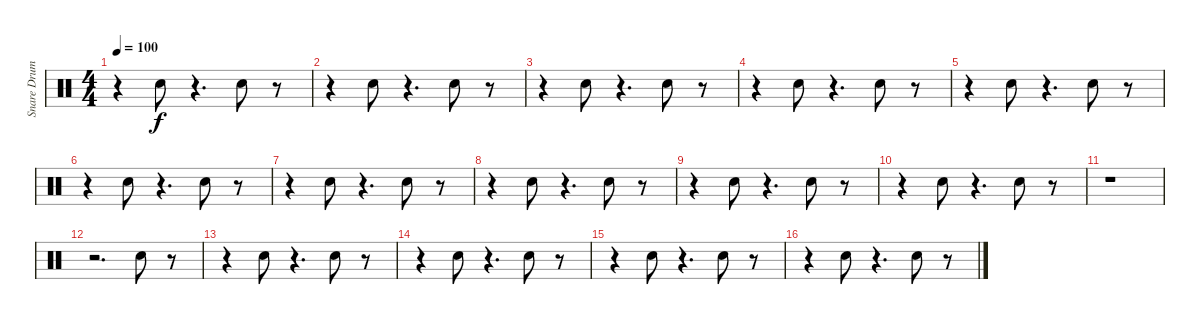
\track ("Snare Drum" "Snare Drum") {instrument percussion}
\staff {score}
\articulation defaults
\ts (4 4)
\tempo 100
\clef neutral
\ks c
r.4{dy f} "Snare (hit) 2".8 r.4{d} "Snare (hit) 2".8 r.8 |
r.4 "Snare (hit) 2".8 r.4{d} "Snare (hit) 2".8 r.8 |
r.4 "Snare (hit) 2".8 r.4{d} "Snare (hit) 2".8 r.8 |
r.4 "Snare (hit) 2".8 r.4{d} "Snare (hit) 2".8 r.8 |
r.4 "Snare (hit) 2".8 r.4{d} "Snare (hit) 2".8 r.8 |
r.4 "Snare (hit) 2".8 r.4{d} "Snare (hit) 2".8 r.8 |
r.4 "Snare (hit) 2".8 r.4{d} "Snare (hit) 2".8 r.8 |
r.4 "Snare (hit) 2".8 r.4{d} "Snare (hit) 2".8 r.8 |
r.4 "Snare (hit) 2".8 r.4{d} "Snare (hit) 2".8 r.8 |
r.4 "Snare (hit) 2".8 r.4{d} "Snare (hit) 2".8 r.8 |
r.1 |
r.2{d} "Snare (hit) 2".8 r.8 |
r.4 "Snare (hit) 2".8 r.4{d} "Snare (hit) 2".8 r.8 |
r.4 "Snare (hit) 2".8 r.4{d} "Snare (hit) 2".8 r.8 |
r.4 "Snare (hit) 2".8 r.4{d} "Snare (hit) 2".8 r.8 |
r.4 "Snare (hit) 2".8 r.4{d} "Snare (hit) 2".8 r.8
